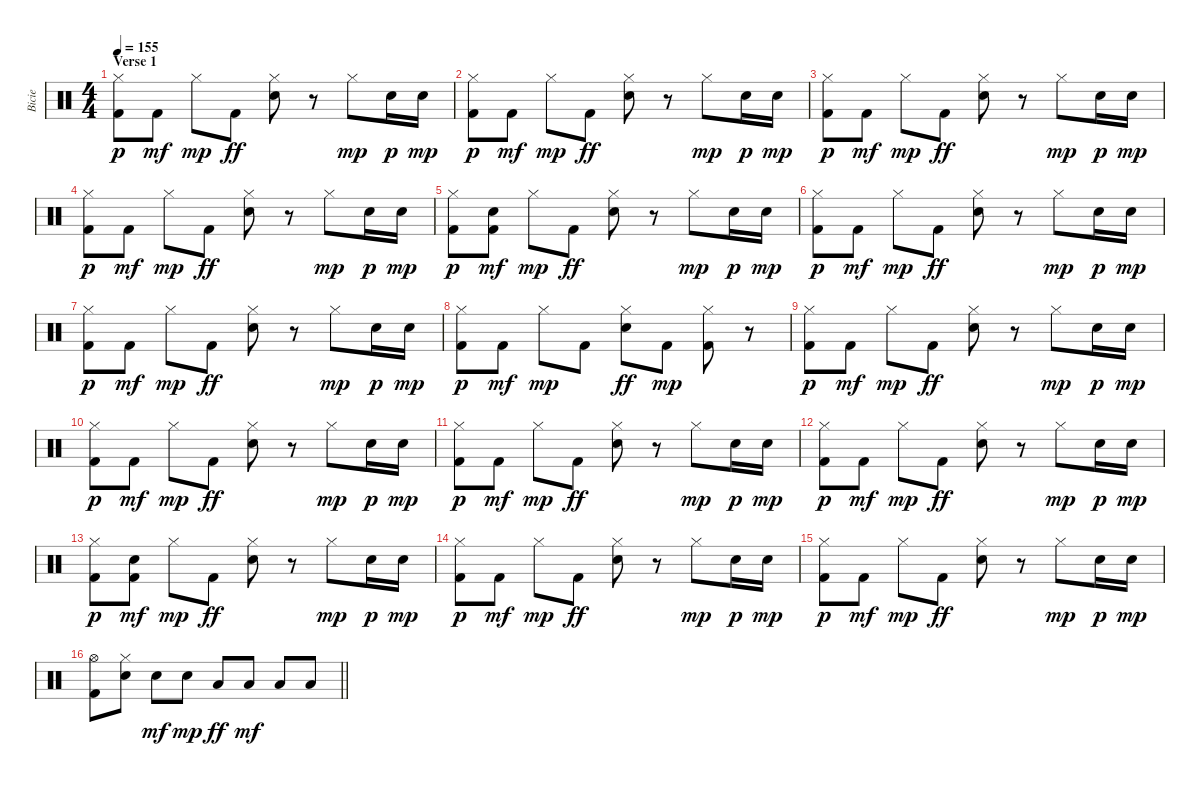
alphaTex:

\track ("Bicie" "Bicie") {instrument percussion}
\staff {score}
\articulation defaults
\ts (4 4)
\section ("" "Verse 1")
\tempo 155
\clef neutral
\ks c
("Hi-Hat (closed)" "Kick (hit) 2").8{dy p} "Kick (hit) 2".8{dy mf} "Hi-Hat (closed)".8{dy mp} "Kick (hit) 2".8{dy ff} ("Hi-Hat (closed)" "Electric Snare (hit)").8 r.8 "Hi-Hat (closed)".8{dy mp} "Electric Snare (hit)".16{dy p} "Electric Snare (hit)".16{dy mp} |
("Hi-Hat (closed)" "Kick (hit) 2").8{dy p} "Kick (hit) 2".8{dy mf} "Hi-Hat (closed)".8{dy mp} "Kick (hit) 2".8{dy ff} ("Hi-Hat (closed)" "Electric Snare (hit)").8 r.8 "Hi-Hat (closed)".8{dy mp} "Electric Snare (hit)".16{dy p} "Electric Snare (hit)".16{dy mp} |
("Hi-Hat (closed)" "Kick (hit) 2").8{dy p} "Kick (hit) 2".8{dy mf} "Hi-Hat (closed)".8{dy mp} "Kick (hit) 2".8{dy ff} ("Hi-Hat (closed)" "Electric Snare (hit)").8 r.8 "Hi-Hat (closed)".8{dy mp} "Electric Snare (hit)".16{dy p} "Electric Snare (hit)".16{dy mp} |
("Hi-Hat (closed)" "Kick (hit) 2").8{dy p} "Kick (hit) 2".8{dy mf} "Hi-Hat (closed)".8{dy mp} "Kick (hit) 2".8{dy ff} ("Hi-Hat (closed)" "Electric Snare (hit)").8 r.8 "Hi-Hat (closed)".8{dy mp} "Electric Snare (hit)".16{dy p} "Electric Snare (hit)".16{dy mp} |
("Hi-Hat (closed)" "Kick (hit) 2").8{dy p} ("Electric Snare (hit)" "Kick (hit) 2").8{dy mf} "Hi-Hat (closed)".8{dy mp} "Kick (hit) 2".8{dy ff} ("Hi-Hat (closed)" "Electric Snare (hit)").8 r.8 "Hi-Hat (closed)".8{dy mp} "Electric Snare (hit)".16{dy p} "Electric Snare (hit)".16{dy mp} |
("Hi-Hat (closed)" "Kick (hit) 2").8{dy p} "Kick (hit) 2".8{dy mf} "Hi-Hat (closed)".8{dy mp} "Kick (hit) 2".8{dy ff} ("Hi-Hat (closed)" "Electric Snare (hit)").8 r.8 "Hi-Hat (closed)".8{dy mp} "Electric Snare (hit)".16{dy p} "Electric Snare (hit)".16{dy mp} |
("Hi-Hat (closed)" "Kick (hit) 2").8{dy p} "Kick (hit) 2".8{dy mf} "Hi-Hat (closed)".8{dy mp} "Kick (hit) 2".8{dy ff} ("Hi-Hat (closed)" "Electric Snare (hit)").8 r.8 "Hi-Hat (closed)".8{dy mp} "Electric Snare (hit)".16{dy p} "Electric Snare (hit)".16{dy mp} |
("Hi-Hat (closed)" "Kick (hit) 2").8{dy p} "Kick (hit) 2".8{dy mf} "Hi-Hat (closed)".8{dy mp} "Kick (hit) 2".8 ("Hi-Hat (closed)" "Electric Snare (hit)").8{dy ff} "Kick (hit) 2".8{dy mp} ("Hi-Hat (closed)" "Kick (hit) 2").8 r.8 |
("Hi-Hat (closed)" "Kick (hit) 2").8{dy p} "Kick (hit) 2".8{dy mf} "Hi-Hat (closed)".8{dy mp} "Kick (hit) 2".8{dy ff} ("Hi-Hat (closed)" "Electric Snare (hit)").8 r.8 "Hi-Hat (closed)".8{dy mp} "Electric Snare (hit)".16{dy p} "Electric Snare (hit)".16{dy mp} |
("Hi-Hat (closed)" "Kick (hit) 2").8{dy p} "Kick (hit) 2".8{dy mf} "Hi-Hat (closed)".8{dy mp} "Kick (hit) 2".8{dy ff} ("Hi-Hat (closed)" "Electric Snare (hit)").8 r.8 "Hi-Hat (closed)".8{dy mp} "Electric Snare (hit)".16{dy p} "Electric Snare (hit)".16{dy mp} |
("Hi-Hat (closed)" "Kick (hit) 2").8{dy p} "Kick (hit) 2".8{dy mf} "Hi-Hat (closed)".8{dy mp} "Kick (hit) 2".8{dy ff} ("Hi-Hat (closed)" "Electric Snare (hit)").8 r.8 "Hi-Hat (closed)".8{dy mp} "Electric Snare (hit)".16{dy p} "Electric Snare (hit)".16{dy mp} |
("Hi-Hat (closed)" "Kick (hit) 2").8{dy p} "Kick (hit) 2".8{dy mf} "Hi-Hat (closed)".8{dy mp} "Kick (hit) 2".8{dy ff} ("Hi-Hat (closed)" "Electric Snare (hit)").8 r.8 "Hi-Hat (closed)".8{dy mp} "Electric Snare (hit)".16{dy p} "Electric Snare (hit)".16{dy mp} |
("Hi-Hat (closed)" "Kick (hit) 2").8{dy p} ("Electric Snare (hit)" "Kick (hit) 2").8{dy mf} "Hi-Hat (closed)".8{dy mp} "Kick (hit) 2".8{dy ff} ("Hi-Hat (closed)" "Electric Snare (hit)").8 r.8 "Hi-Hat (closed)".8{dy mp} "Electric Snare (hit)".16{dy p} "Electric Snare (hit)".16{dy mp} |
("Hi-Hat (closed)" "Kick (hit) 2").8{dy p} "Kick (hit) 2".8{dy mf} "Hi-Hat (closed)".8{dy mp} "Kick (hit) 2".8{dy ff} ("Hi-Hat (closed)" "Electric Snare (hit)").8 r.8 "Hi-Hat (closed)".8{dy mp} "Electric Snare (hit)".16{dy p} "Electric Snare (hit)".16{dy mp} |
("Hi-Hat (closed)" "Kick (hit) 2").8{dy p} "Kick (hit) 2".8{dy mf} "Hi-Hat (closed)".8{dy mp} "Kick (hit) 2".8{dy ff} ("Hi-Hat (closed)" "Electric Snare (hit)").8 r.8 "Hi-Hat (closed)".8{dy mp} "Electric Snare (hit)".16{dy p} "Electric Snare (hit)".16{dy mp} |
\barLineRight lightlight
("Hi-Hat (open)" "Kick (hit) 2").8 ("Electric Snare (hit)" "Hi-Hat (closed)").8 "Electric Snare (hit)".8{dy mf} "Electric Snare (hit)".8{dy mp} "Low Tom (hit)".8{dy ff} "Low Tom (hit)".8{dy mf} "Low Floor Tom (hit)".8 "Low Floor Tom (hit)".8
